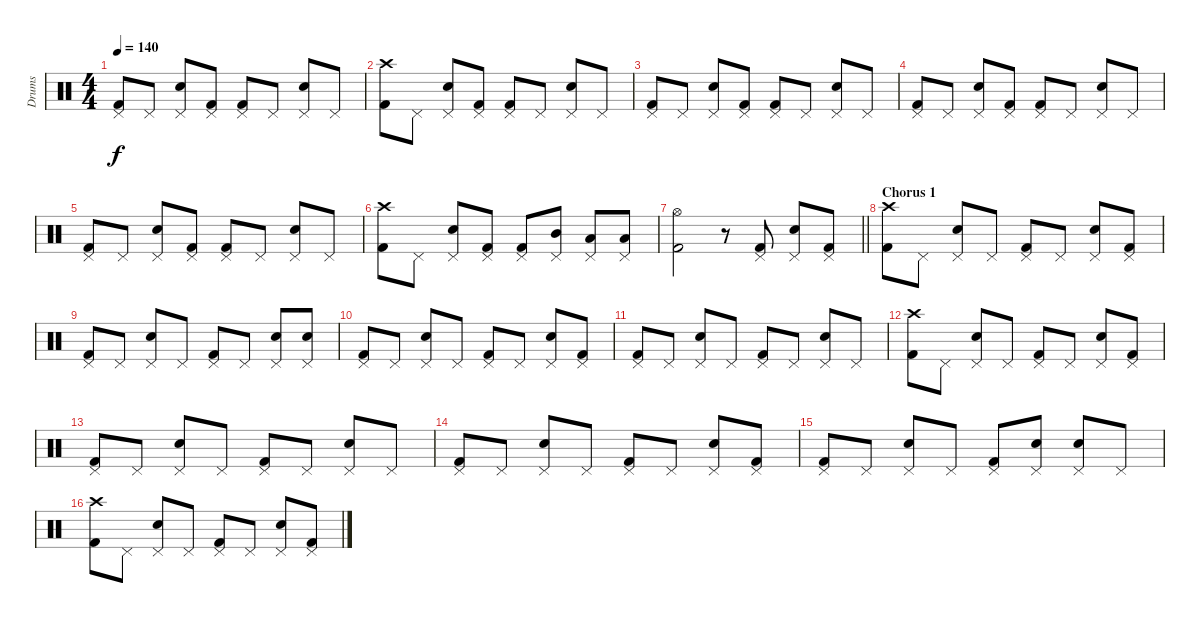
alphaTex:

\track ("Drums" "Drums") {instrument percussion}
\staff {score}
\articulation defaults
\ts (4 4)
\tempo 140
\clef neutral
\ks c
("Pedal Hi-Hat (hit)" "Kick (hit) 2").8{dy f} "Pedal Hi-Hat (hit)".8 ("Pedal Hi-Hat (hit)" "Electric Snare (hit)").8 ("Pedal Hi-Hat (hit)" "Kick (hit) 2").8 ("Pedal Hi-Hat (hit)" "Kick (hit) 2").8 "Pedal Hi-Hat (hit)".8 ("Pedal Hi-Hat (hit)" "Electric Snare (hit)").8 "Pedal Hi-Hat (hit)".8 |
("Crash high (hit)" "Kick (hit) 2").8 "Pedal Hi-Hat (hit)".8 ("Pedal Hi-Hat (hit)" "Electric Snare (hit)").8 ("Pedal Hi-Hat (hit)" "Kick (hit) 2").8 ("Pedal Hi-Hat (hit)" "Kick (hit) 2").8 "Pedal Hi-Hat (hit)".8 ("Pedal Hi-Hat (hit)" "Electric Snare (hit)").8 "Pedal Hi-Hat (hit)".8 |
("Pedal Hi-Hat (hit)" "Kick (hit) 2").8 "Pedal Hi-Hat (hit)".8 ("Pedal Hi-Hat (hit)" "Electric Snare (hit)").8 ("Pedal Hi-Hat (hit)" "Kick (hit) 2").8 ("Pedal Hi-Hat (hit)" "Kick (hit) 2").8 "Pedal Hi-Hat (hit)".8 ("Pedal Hi-Hat (hit)" "Electric Snare (hit)").8 "Pedal Hi-Hat (hit)".8 |
("Pedal Hi-Hat (hit)" "Kick (hit) 2").8 "Pedal Hi-Hat (hit)".8 ("Pedal Hi-Hat (hit)" "Electric Snare (hit)").8 ("Pedal Hi-Hat (hit)" "Kick (hit) 2").8 ("Pedal Hi-Hat (hit)" "Kick (hit) 2").8 "Pedal Hi-Hat (hit)".8 ("Pedal Hi-Hat (hit)" "Electric Snare (hit)").8 "Pedal Hi-Hat (hit)".8 |
("Pedal Hi-Hat (hit)" "Kick (hit) 2").8 "Pedal Hi-Hat (hit)".8 ("Pedal Hi-Hat (hit)" "Electric Snare (hit)").8 ("Pedal Hi-Hat (hit)" "Kick (hit) 2").8 ("Pedal Hi-Hat (hit)" "Kick (hit) 2").8 "Pedal Hi-Hat (hit)".8 ("Pedal Hi-Hat (hit)" "Electric Snare (hit)").8 "Pedal Hi-Hat (hit)".8 |
("Crash high (hit)" "Kick (hit) 2").8 "Pedal Hi-Hat (hit)".8 ("Pedal Hi-Hat (hit)" "Electric Snare (hit)").8 ("Pedal Hi-Hat (hit)" "Kick (hit) 2").8 ("Pedal Hi-Hat (hit)" "Kick (hit) 2").8 ("Pedal Hi-Hat (hit)" "Mid Tom (hit)").8 ("Pedal Hi-Hat (hit)" "Low Tom (hit)").8 ("Pedal Hi-Hat (hit)" "Low Tom (hit)").8 |
\barLineRight lightlight
("Hi-Hat (open)" "Kick (hit) 2").2 r.8 ("Pedal Hi-Hat (hit)" "Kick (hit) 2").8 ("Pedal Hi-Hat (hit)" "Electric Snare (hit)").8 ("Pedal Hi-Hat (hit)" "Kick (hit) 2").8 |
\section ("" "Chorus 1")
("Crash high (hit)" "Kick (hit) 2").8 "Pedal Hi-Hat (hit)".8 ("Pedal Hi-Hat (hit)" "Electric Snare (hit)").8 "Pedal Hi-Hat (hit)".8 ("Pedal Hi-Hat (hit)" "Kick (hit) 2").8 "Pedal Hi-Hat (hit)".8 ("Pedal Hi-Hat (hit)" "Electric Snare (hit)").8 ("Pedal Hi-Hat (hit)" "Kick (hit) 2").8 |
("Pedal Hi-Hat (hit)" "Kick (hit) 2").8 "Pedal Hi-Hat (hit)".8 ("Pedal Hi-Hat (hit)" "Electric Snare (hit)").8 "Pedal Hi-Hat (hit)".8 ("Pedal Hi-Hat (hit)" "Kick (hit) 2").8 "Pedal Hi-Hat (hit)".8 ("Pedal Hi-Hat (hit)" "Electric Snare (hit)").8 ("Pedal Hi-Hat (hit)" "Electric Snare (hit)").8 |
("Pedal Hi-Hat (hit)" "Kick (hit) 2").8 "Pedal Hi-Hat (hit)".8 ("Pedal Hi-Hat (hit)" "Electric Snare (hit)").8 "Pedal Hi-Hat (hit)".8 ("Pedal Hi-Hat (hit)" "Kick (hit) 2").8 "Pedal Hi-Hat (hit)".8 ("Pedal Hi-Hat (hit)" "Electric Snare (hit)").8 ("Pedal Hi-Hat (hit)" "Kick (hit) 2").8 |
("Pedal Hi-Hat (hit)" "Kick (hit) 2").8 "Pedal Hi-Hat (hit)".8 ("Pedal Hi-Hat (hit)" "Electric Snare (hit)").8 "Pedal Hi-Hat (hit)".8 ("Pedal Hi-Hat (hit)" "Kick (hit) 2").8 "Pedal Hi-Hat (hit)".8 ("Pedal Hi-Hat (hit)" "Electric Snare (hit)").8 "Pedal Hi-Hat (hit)".8 |
("Crash high (hit)" "Kick (hit) 2").8 "Pedal Hi-Hat (hit)".8 ("Pedal Hi-Hat (hit)" "Electric Snare (hit)").8 "Pedal Hi-Hat (hit)".8 ("Pedal Hi-Hat (hit)" "Kick (hit) 2").8 "Pedal Hi-Hat (hit)".8 ("Pedal Hi-Hat (hit)" "Electric Snare (hit)").8 ("Pedal Hi-Hat (hit)" "Kick (hit) 2").8 |
("Pedal Hi-Hat (hit)" "Kick (hit) 2").8 "Pedal Hi-Hat (hit)".8 ("Pedal Hi-Hat (hit)" "Electric Snare (hit)").8 "Pedal Hi-Hat (hit)".8 ("Pedal Hi-Hat (hit)" "Kick (hit) 2").8 "Pedal Hi-Hat (hit)".8 ("Pedal Hi-Hat (hit)" "Electric Snare (hit)").8 "Pedal Hi-Hat (hit)".8 |
("Pedal Hi-Hat (hit)" "Kick (hit) 2").8 "Pedal Hi-Hat (hit)".8 ("Pedal Hi-Hat (hit)" "Electric Snare (hit)").8 "Pedal Hi-Hat (hit)".8 ("Pedal Hi-Hat (hit)" "Kick (hit) 2").8 "Pedal Hi-Hat (hit)".8 ("Pedal Hi-Hat (hit)" "Electric Snare (hit)").8 ("Pedal Hi-Hat (hit)" "Kick (hit) 2").8 |
("Pedal Hi-Hat (hit)" "Kick (hit) 2").8 "Pedal Hi-Hat (hit)".8 ("Pedal Hi-Hat (hit)" "Electric Snare (hit)").8 "Pedal Hi-Hat (hit)".8 ("Pedal Hi-Hat (hit)" "Kick (hit) 2").8 ("Pedal Hi-Hat (hit)" "Electric Snare (hit)").8 ("Pedal Hi-Hat (hit)" "Electric Snare (hit)").8 "Pedal Hi-Hat (hit)".8 |
("Crash high (hit)" "Kick (hit) 2").8 "Pedal Hi-Hat (hit)".8 ("Pedal Hi-Hat (hit)" "Electric Snare (hit)").8 "Pedal Hi-Hat (hit)".8 ("Pedal Hi-Hat (hit)" "Kick (hit) 2").8 "Pedal Hi-Hat (hit)".8 ("Pedal Hi-Hat (hit)" "Electric Snare (hit)").8 ("Pedal Hi-Hat (hit)" "Kick (hit) 2").8
